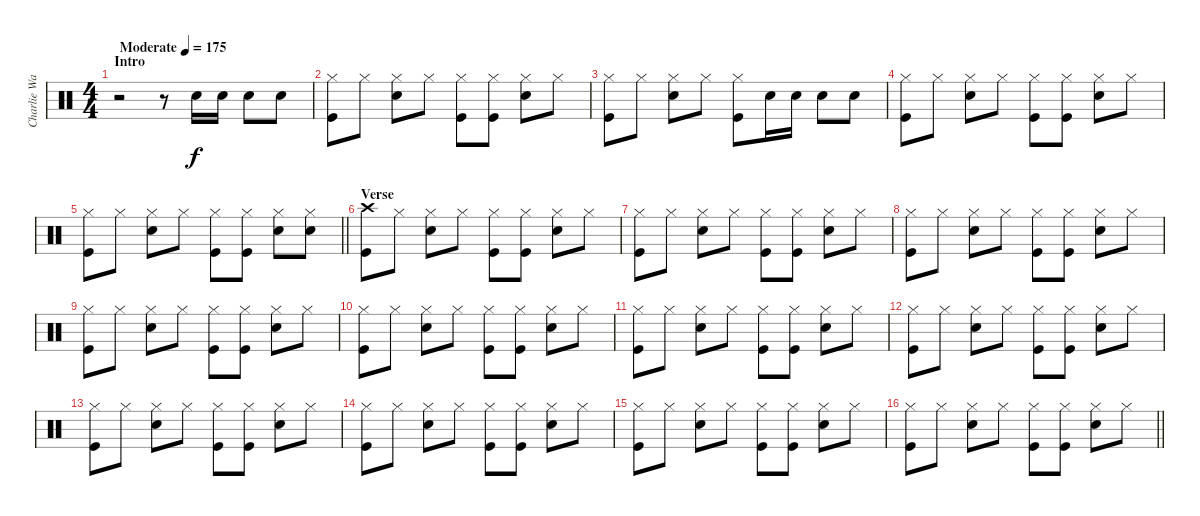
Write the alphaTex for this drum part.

\track ("Charlie Watts" "Charlie Wa") {instrument percussion}
\staff {score}
\articulation defaults
\ts (4 4)
\section ("" "Intro")
\tempo (175 "Moderate")
\clef neutral
\ks c
r.2{dy f} r.8 "Snare (hit) 2".16 "Snare (hit) 2".16 "Snare (hit) 2".8 "Snare (hit) 2".8 |
("Hi-Hat (closed)" "Kick (hit)").8 "Hi-Hat (closed)".8 ("Hi-Hat (closed)" "Snare (hit) 2").8 "Hi-Hat (closed)".8 ("Hi-Hat (closed)" "Kick (hit)").8 ("Hi-Hat (closed)" "Kick (hit)").8 ("Hi-Hat (closed)" "Snare (hit) 2").8 "Hi-Hat (closed)".8 |
("Hi-Hat (closed)" "Kick (hit)").8 "Hi-Hat (closed)".8 ("Hi-Hat (closed)" "Snare (hit) 2").8 "Hi-Hat (closed)".8 ("Hi-Hat (closed)" "Kick (hit)").8 "Snare (hit) 2".16 "Snare (hit) 2".16 "Snare (hit) 2".8 "Snare (hit) 2".8 |
("Hi-Hat (closed)" "Kick (hit)").8 "Hi-Hat (closed)".8 ("Hi-Hat (closed)" "Snare (hit) 2").8 "Hi-Hat (closed)".8 ("Hi-Hat (closed)" "Kick (hit)").8 ("Hi-Hat (closed)" "Kick (hit)").8 ("Hi-Hat (closed)" "Snare (hit) 2").8 "Hi-Hat (closed)".8 |
\barLineRight lightlight
("Hi-Hat (closed)" "Kick (hit)").8 "Hi-Hat (closed)".8 ("Hi-Hat (closed)" "Snare (hit) 2").8 "Hi-Hat (closed)".8 ("Hi-Hat (closed)" "Kick (hit)").8 ("Hi-Hat (closed)" "Kick (hit)").8 ("Hi-Hat (closed)" "Snare (hit) 2").8 ("Hi-Hat (closed)" "Snare (hit) 2").8 |
\section ("" "Verse")
("Crash high (hit)" "Kick (hit)").8 "Hi-Hat (closed)".8 ("Hi-Hat (closed)" "Snare (hit) 2").8 "Hi-Hat (closed)".8 ("Hi-Hat (closed)" "Kick (hit)").8 ("Hi-Hat (closed)" "Kick (hit)").8 ("Hi-Hat (closed)" "Snare (hit) 2").8 "Hi-Hat (closed)".8 |
("Hi-Hat (closed)" "Kick (hit)").8 "Hi-Hat (closed)".8 ("Hi-Hat (closed)" "Snare (hit) 2").8 "Hi-Hat (closed)".8 ("Hi-Hat (closed)" "Kick (hit)").8 ("Hi-Hat (closed)" "Kick (hit)").8 ("Hi-Hat (closed)" "Snare (hit) 2").8 "Hi-Hat (closed)".8 |
("Hi-Hat (closed)" "Kick (hit)").8 "Hi-Hat (closed)".8 ("Hi-Hat (closed)" "Snare (hit) 2").8 "Hi-Hat (closed)".8 ("Hi-Hat (closed)" "Kick (hit)").8 ("Hi-Hat (closed)" "Kick (hit)").8 ("Hi-Hat (closed)" "Snare (hit) 2").8 "Hi-Hat (closed)".8 |
("Hi-Hat (closed)" "Kick (hit)").8 "Hi-Hat (closed)".8 ("Hi-Hat (closed)" "Snare (hit) 2").8 "Hi-Hat (closed)".8 ("Hi-Hat (closed)" "Kick (hit)").8 ("Hi-Hat (closed)" "Kick (hit)").8 ("Hi-Hat (closed)" "Snare (hit) 2").8 "Hi-Hat (closed)".8 |
("Hi-Hat (closed)" "Kick (hit)").8 "Hi-Hat (closed)".8 ("Hi-Hat (closed)" "Snare (hit) 2").8 "Hi-Hat (closed)".8 ("Hi-Hat (closed)" "Kick (hit)").8 ("Hi-Hat (closed)" "Kick (hit)").8 ("Hi-Hat (closed)" "Snare (hit) 2").8 "Hi-Hat (closed)".8 |
("Hi-Hat (closed)" "Kick (hit)").8 "Hi-Hat (closed)".8 ("Hi-Hat (closed)" "Snare (hit) 2").8 "Hi-Hat (closed)".8 ("Hi-Hat (closed)" "Kick (hit)").8 ("Hi-Hat (closed)" "Kick (hit)").8 ("Hi-Hat (closed)" "Snare (hit) 2").8 "Hi-Hat (closed)".8 |
("Hi-Hat (closed)" "Kick (hit)").8 "Hi-Hat (closed)".8 ("Hi-Hat (closed)" "Snare (hit) 2").8 "Hi-Hat (closed)".8 ("Hi-Hat (closed)" "Kick (hit)").8 ("Hi-Hat (closed)" "Kick (hit)").8 ("Hi-Hat (closed)" "Snare (hit) 2").8 "Hi-Hat (closed)".8 |
("Hi-Hat (closed)" "Kick (hit)").8 "Hi-Hat (closed)".8 ("Hi-Hat (closed)" "Snare (hit) 2").8 "Hi-Hat (closed)".8 ("Hi-Hat (closed)" "Kick (hit)").8 ("Hi-Hat (closed)" "Kick (hit)").8 ("Hi-Hat (closed)" "Snare (hit) 2").8 "Hi-Hat (closed)".8 |
("Hi-Hat (closed)" "Kick (hit)").8 "Hi-Hat (closed)".8 ("Hi-Hat (closed)" "Snare (hit) 2").8 "Hi-Hat (closed)".8 ("Hi-Hat (closed)" "Kick (hit)").8 ("Hi-Hat (closed)" "Kick (hit)").8 ("Hi-Hat (closed)" "Snare (hit) 2").8 "Hi-Hat (closed)".8 |
("Hi-Hat (closed)" "Kick (hit)").8 "Hi-Hat (closed)".8 ("Hi-Hat (closed)" "Snare (hit) 2").8 "Hi-Hat (closed)".8 ("Hi-Hat (closed)" "Kick (hit)").8 ("Hi-Hat (closed)" "Kick (hit)").8 ("Hi-Hat (closed)" "Snare (hit) 2").8 "Hi-Hat (closed)".8 |
\barLineRight lightlight
("Hi-Hat (closed)" "Kick (hit)").8 "Hi-Hat (closed)".8 ("Hi-Hat (closed)" "Snare (hit) 2").8 "Hi-Hat (closed)".8 ("Hi-Hat (closed)" "Kick (hit)").8 ("Hi-Hat (closed)" "Kick (hit)").8 ("Hi-Hat (closed)" "Snare (hit) 2").8 "Hi-Hat (closed)".8
